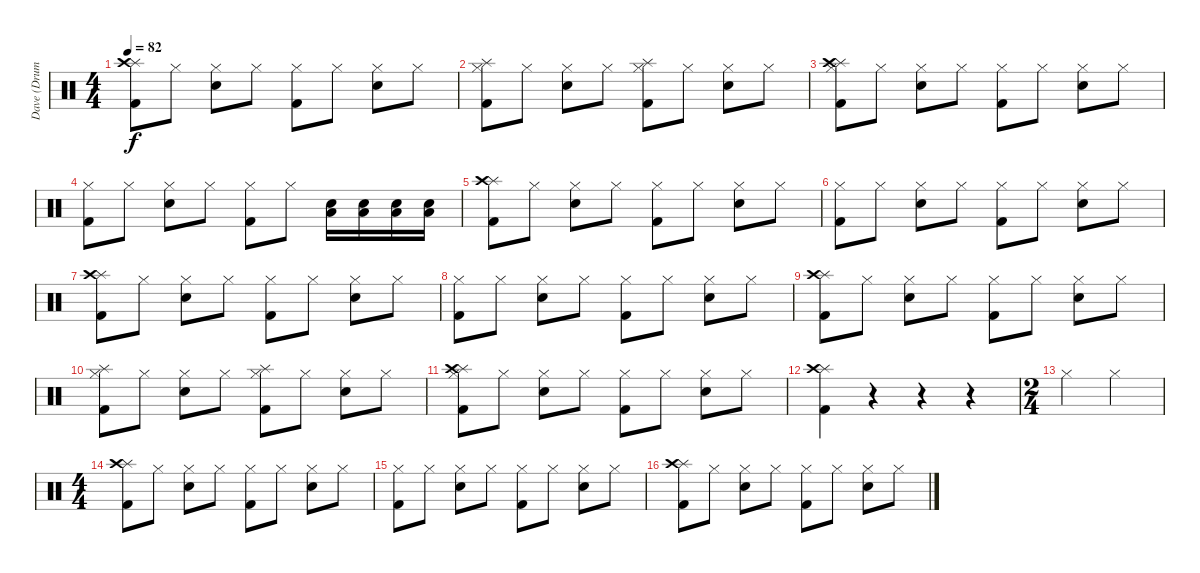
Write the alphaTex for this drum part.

\track ("Dave (Drums)" "Dave (Drum") {instrument percussion}
\staff {score}
\articulation defaults
\ts (4 4)
\tempo 82
\clef neutral
\ks c
("Splash (hit)" "Crash high (hit)" "Kick (hit) 2").8{dy f} "Hi-Hat (closed)".8 ("Hi-Hat (closed)" "Snare (hit) 2").8 "Hi-Hat (closed)".8 ("Hi-Hat (closed)" "Kick (hit) 2").8 "Hi-Hat (closed)".8 ("Hi-Hat (closed)" "Snare (hit) 2").8 "Hi-Hat (closed)".8 |
("Hi-Hat (closed)" "Splash (hit)" "Kick (hit) 2").8 "Hi-Hat (closed)".8 ("Hi-Hat (closed)" "Snare (hit) 2").8 "Hi-Hat (closed)".8 ("Hi-Hat (closed)" "Splash (hit)" "Kick (hit) 2").8 "Hi-Hat (closed)".8 ("Hi-Hat (closed)" "Snare (hit) 2").8 "Hi-Hat (closed)".8 |
("Hi-Hat (closed)" "Splash (hit)" "Crash high (hit)" "Kick (hit) 2").8 "Hi-Hat (closed)".8 ("Hi-Hat (closed)" "Snare (hit) 2").8 "Hi-Hat (closed)".8 ("Hi-Hat (closed)" "Kick (hit) 2").8 "Hi-Hat (closed)".8 ("Hi-Hat (closed)" "Snare (hit) 2").8 "Hi-Hat (closed)".8 |
("Hi-Hat (closed)" "Kick (hit) 2").8 "Hi-Hat (closed)".8 ("Hi-Hat (closed)" "Snare (hit) 2").8 "Hi-Hat (closed)".8 ("Hi-Hat (closed)" "Kick (hit) 2").8 "Hi-Hat (closed)".8 ("Low Tom (hit)" "Snare (hit) 2").16 ("Low Tom (hit)" "Snare (hit) 2").16 ("Low Tom (hit)" "Snare (hit) 2").16 ("Low Tom (hit)" "Snare (hit) 2").16 |
("Splash (hit)" "Crash high (hit)" "Kick (hit) 2").8 "Hi-Hat (closed)".8 ("Hi-Hat (closed)" "Snare (hit) 2").8 "Hi-Hat (closed)".8 ("Hi-Hat (closed)" "Kick (hit) 2").8 "Hi-Hat (closed)".8 ("Hi-Hat (closed)" "Snare (hit) 2").8 "Hi-Hat (closed)".8 |
("Hi-Hat (closed)" "Kick (hit) 2").8 "Hi-Hat (closed)".8 ("Hi-Hat (closed)" "Snare (hit) 2").8 "Hi-Hat (closed)".8 ("Hi-Hat (closed)" "Kick (hit) 2").8 "Hi-Hat (closed)".8 ("Hi-Hat (closed)" "Snare (hit) 2").8 "Hi-Hat (closed)".8 |
("Splash (hit)" "Crash high (hit)" "Kick (hit) 2").8 "Hi-Hat (closed)".8 ("Hi-Hat (closed)" "Snare (hit) 2").8 "Hi-Hat (closed)".8 ("Hi-Hat (closed)" "Kick (hit) 2").8 "Hi-Hat (closed)".8 ("Hi-Hat (closed)" "Snare (hit) 2").8 "Hi-Hat (closed)".8 |
("Hi-Hat (closed)" "Kick (hit) 2").8 "Hi-Hat (closed)".8 ("Hi-Hat (closed)" "Snare (hit) 2").8 "Hi-Hat (closed)".8 ("Hi-Hat (closed)" "Kick (hit) 2").8 "Hi-Hat (closed)".8 ("Hi-Hat (closed)" "Snare (hit) 2").8 "Hi-Hat (closed)".8 |
("Splash (hit)" "Crash high (hit)" "Kick (hit) 2").8 "Hi-Hat (closed)".8 ("Hi-Hat (closed)" "Snare (hit) 2").8 "Hi-Hat (closed)".8 ("Hi-Hat (closed)" "Kick (hit) 2").8 "Hi-Hat (closed)".8 ("Hi-Hat (closed)" "Snare (hit) 2").8 "Hi-Hat (closed)".8 |
("Hi-Hat (closed)" "Splash (hit)" "Kick (hit) 2").8 "Hi-Hat (closed)".8 ("Hi-Hat (closed)" "Snare (hit) 2").8 "Hi-Hat (closed)".8 ("Hi-Hat (closed)" "Splash (hit)" "Kick (hit) 2").8 "Hi-Hat (closed)".8 ("Hi-Hat (closed)" "Snare (hit) 2").8 "Hi-Hat (closed)".8 |
("Hi-Hat (closed)" "Splash (hit)" "Crash high (hit)" "Kick (hit) 2").8 "Hi-Hat (closed)".8 ("Hi-Hat (closed)" "Snare (hit) 2").8 "Hi-Hat (closed)".8 ("Hi-Hat (closed)" "Kick (hit) 2").8 "Hi-Hat (closed)".8 ("Hi-Hat (closed)" "Snare (hit) 2").8 "Hi-Hat (closed)".8 |
("Splash (hit)" "Crash high (hit)" "Kick (hit) 2").4 r.4 r.4 r.4 |
\ts (2 4)
"Hi-Hat (closed)".4 "Hi-Hat (closed)".4 |
\ts (4 4)
("Splash (hit)" "Crash high (hit)" "Kick (hit) 2").8 "Hi-Hat (closed)".8 ("Hi-Hat (closed)" "Snare (hit) 2").8 "Hi-Hat (closed)".8 ("Hi-Hat (closed)" "Kick (hit) 2").8 "Hi-Hat (closed)".8 ("Hi-Hat (closed)" "Snare (hit) 2").8 "Hi-Hat (closed)".8 |
("Hi-Hat (closed)" "Kick (hit) 2").8 "Hi-Hat (closed)".8 ("Hi-Hat (closed)" "Snare (hit) 2").8 "Hi-Hat (closed)".8 ("Hi-Hat (closed)" "Kick (hit) 2").8 "Hi-Hat (closed)".8 ("Hi-Hat (closed)" "Snare (hit) 2").8 "Hi-Hat (closed)".8 |
("Splash (hit)" "Crash high (hit)" "Kick (hit) 2").8 "Hi-Hat (closed)".8 ("Hi-Hat (closed)" "Snare (hit) 2").8 "Hi-Hat (closed)".8 ("Hi-Hat (closed)" "Kick (hit) 2").8 "Hi-Hat (closed)".8 ("Hi-Hat (closed)" "Snare (hit) 2").8 "Hi-Hat (closed)".8
